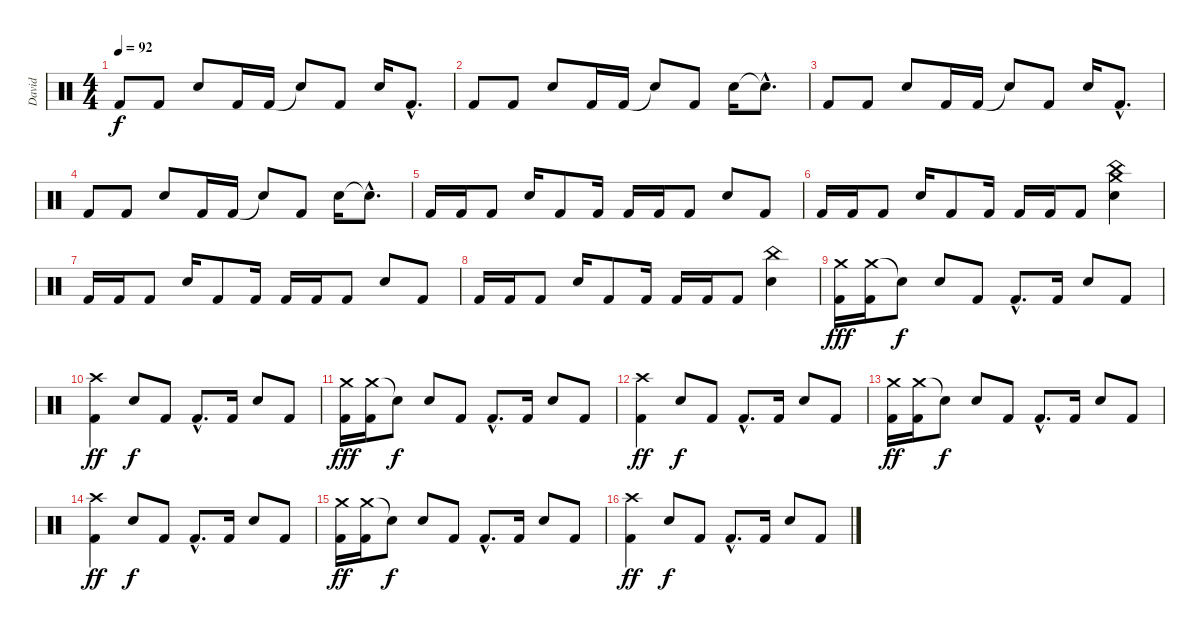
\track ("David" "David") {instrument percussion}
\staff {score}
\articulation defaults
\ts (4 4)
\tempo 92
\clef neutral
\ks c "Kick (hit) 2".8{dy f} "Kick (hit) 2".8 "Snare (hit) 2".8 "Kick (hit) 2".16 "Kick (hit) 2".16 "Snare (hit)"{t}.8 "Kick (hit) 2".8 "Snare (hit) 2".16 "Kick (hit) 2"{hac}.8{d}
|
"Kick (hit) 2".8 "Kick (hit) 2".8 "Snare (hit) 2".8 "Kick (hit) 2".16 "Kick (hit) 2".16 "Snare (hit)"{t}.8 "Kick (hit) 2".8 "Snare (hit) 2".16 "Snare (hit)"{hac t}.8{d} |
"Kick (hit) 2".8 "Kick (hit) 2".8 "Snare (hit) 2".8 "Kick (hit) 2".16 "Kick (hit) 2".16 "Snare (hit)"{t}.8 "Kick (hit) 2".8 "Snare (hit) 2".16 "Kick (hit) 2"{hac}.8{d} |
"Kick (hit) 2".8 "Kick (hit) 2".8 "Snare (hit) 2".8 "Kick (hit) 2".16 "Kick (hit) 2".16 "Snare (hit)"{t}.8 "Kick (hit) 2".8 "Snare (hit) 2".16 "Snare (hit)"{hac t}.8{d} |
"Kick (hit) 2".16 "Kick (hit) 2".16 "Kick (hit) 2".8 "Snare (hit) 2".16 "Kick (hit) 2".8 "Kick (hit) 2".16 "Kick (hit) 2".16 "Kick (hit) 2".16 "Kick (hit) 2".8 "Snare (hit) 2".8 "Kick (hit) 2".8 |
"Kick (hit) 2".16 "Kick (hit) 2".16 "Kick (hit) 2".8 "Snare (hit) 2".16 "Kick (hit) 2".8 "Kick (hit) 2".16 "Kick (hit) 2".16 "Kick (hit) 2".16 "Kick (hit) 2".8 ("Crash medium (hit)" "China (hit)" "Snare (hit) 2").4 |
"Kick (hit) 2".16 "Kick (hit) 2".16 "Kick (hit) 2".8 "Snare (hit) 2".16 "Kick (hit) 2".8 "Kick (hit) 2".16 "Kick (hit) 2".16 "Kick (hit) 2".16 "Kick (hit) 2".8 "Snare (hit) 2".8 "Kick (hit) 2".8 |
"Kick (hit) 2".16 "Kick (hit) 2".16 "Kick (hit) 2".8 "Snare (hit) 2".16 "Kick (hit) 2".8 "Kick (hit) 2".16 "Kick (hit) 2".16 "Kick (hit) 2".16 "Kick (hit) 2".8 ("China (hit)" "Snare (hit) 2").4 |
("Crash medium (hit)" "Kick (hit) 2").16{dy fff} ("Crash medium (hit)" "Kick (hit) 2").16 "Snare (hit)"{t}.8{dy f} "Snare (hit) 2".8 "Kick (hit) 2".8 "Kick (hit) 2"{hac}.8{d} "Kick (hit) 2".16 "Snare (hit) 2".8 "Kick (hit) 2".8 |
("Crash high (hit)" "Kick (hit) 2").4{dy ff} "Snare (hit) 2".8{dy f} "Kick (hit) 2".8 "Kick (hit) 2"{hac}.8{d} "Kick (hit) 2".16 "Snare (hit) 2".8 "Kick (hit) 2".8 |
("Crash medium (hit)" "Kick (hit) 2").16{dy fff} ("Crash medium (hit)" "Kick (hit) 2").16 "Snare (hit)"{t}.8{dy f} "Snare (hit) 2".8 "Kick (hit) 2".8 "Kick (hit) 2"{hac}.8{d} "Kick (hit) 2".16 "Snare (hit) 2".8 "Kick (hit) 2".8 |
("Crash high (hit)" "Kick (hit) 2").4{dy ff} "Snare (hit) 2".8{dy f} "Kick (hit) 2".8 "Kick (hit) 2"{hac}.8{d} "Kick (hit) 2".16 "Snare (hit) 2".8 "Kick (hit) 2".8 |
("Crash medium (hit)" "Kick (hit) 2").16{dy ff} ("Crash medium (hit)" "Kick (hit) 2").16 "Snare (hit)"{t}.8{dy f} "Snare (hit) 2".8 "Kick (hit) 2".8 "Kick (hit) 2"{hac}.8{d} "Kick (hit) 2".16 "Snare (hit) 2".8 "Kick (hit) 2".8 |
("Crash high (hit)" "Kick (hit) 2").4{dy ff} "Snare (hit) 2".8{dy f} "Kick (hit) 2".8 "Kick (hit) 2"{hac}.8{d} "Kick (hit) 2".16 "Snare (hit) 2".8 "Kick (hit) 2".8 |
("Crash medium (hit)" "Kick (hit) 2").16{dy ff} ("Crash medium (hit)" "Kick (hit) 2").16 "Snare (hit)"{t}.8{dy f} "Snare (hit) 2".8 "Kick (hit) 2".8 "Kick (hit) 2"{hac}.8{d} "Kick (hit) 2".16 "Snare (hit) 2".8 "Kick (hit) 2".8 |
("Crash high (hit)" "Kick (hit) 2").4{dy ff} "Snare (hit) 2".8{dy f} "Kick (hit) 2".8 "Kick (hit) 2"{hac}.8{d} "Kick (hit) 2".16 "Snare (hit) 2".8 "Kick (hit) 2".8
